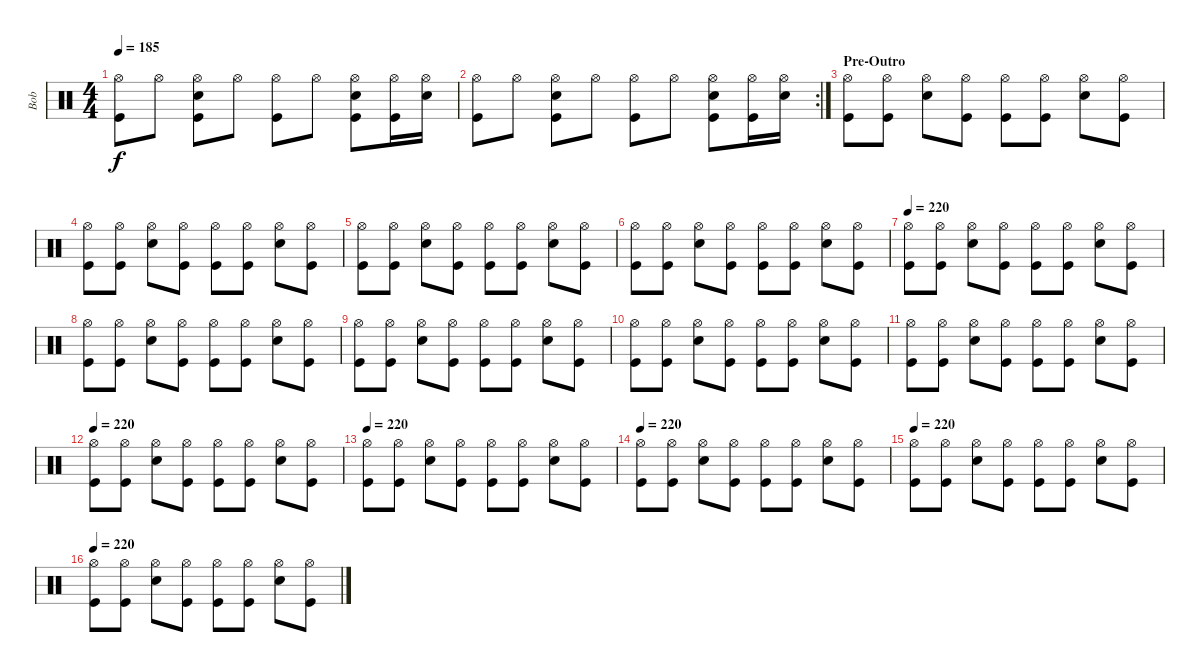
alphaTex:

\track ("Bob" "Bob") {instrument percussion}
\staff {score}
\articulation defaults
\ts (4 4)
\tempo 185
\clef neutral
\ks c
("Hi-Hat (open)" "Kick (hit)").8{dy f} "Hi-Hat (open)".8 ("Hi-Hat (open)" "Snare (hit) 2" "Kick (hit)").8 "Hi-Hat (open)".8 ("Hi-Hat (open)" "Kick (hit)").8 "Hi-Hat (open)".8 ("Hi-Hat (open)" "Snare (hit) 2" "Kick (hit)").8 ("Hi-Hat (open)" "Kick (hit)").16 ("Hi-Hat (open)" "Snare (hit) 2").16 |
\rc 2
("Hi-Hat (open)" "Kick (hit)").8 "Hi-Hat (open)".8 ("Hi-Hat (open)" "Snare (hit) 2" "Kick (hit)").8 "Hi-Hat (open)".8 ("Hi-Hat (open)" "Kick (hit)").8 "Hi-Hat (open)".8 ("Hi-Hat (open)" "Snare (hit) 2" "Kick (hit)").8 ("Hi-Hat (open)" "Kick (hit)").16 ("Hi-Hat (open)" "Snare (hit) 2").16 |
\section ("" "Pre-Outro")
("Hi-Hat (open)" "Kick (hit)").8 ("Hi-Hat (open)" "Kick (hit)").8 ("Hi-Hat (open)" "Snare (hit) 2").8 ("Hi-Hat (open)" "Kick (hit)").8 ("Hi-Hat (open)" "Kick (hit)").8 ("Hi-Hat (open)" "Kick (hit)").8 ("Hi-Hat (open)" "Snare (hit) 2").8 ("Hi-Hat (open)" "Kick (hit)").8 |
("Hi-Hat (open)" "Kick (hit)").8 ("Hi-Hat (open)" "Kick (hit)").8 ("Hi-Hat (open)" "Snare (hit) 2").8 ("Hi-Hat (open)" "Kick (hit)").8 ("Hi-Hat (open)" "Kick (hit)").8 ("Hi-Hat (open)" "Kick (hit)").8 ("Hi-Hat (open)" "Snare (hit) 2").8 ("Hi-Hat (open)" "Kick (hit)").8 |
("Hi-Hat (open)" "Kick (hit)").8 ("Hi-Hat (open)" "Kick (hit)").8 ("Hi-Hat (open)" "Snare (hit) 2").8 ("Hi-Hat (open)" "Kick (hit)").8 ("Hi-Hat (open)" "Kick (hit)").8 ("Hi-Hat (open)" "Kick (hit)").8 ("Hi-Hat (open)" "Snare (hit) 2").8 ("Hi-Hat (open)" "Kick (hit)").8 |
("Hi-Hat (open)" "Kick (hit)").8 ("Hi-Hat (open)" "Kick (hit)").8 ("Hi-Hat (open)" "Snare (hit) 2").8 ("Hi-Hat (open)" "Kick (hit)").8 ("Hi-Hat (open)" "Kick (hit)").8 ("Hi-Hat (open)" "Kick (hit)").8 ("Hi-Hat (open)" "Snare (hit) 2").8 ("Hi-Hat (open)" "Kick (hit)").8 |
\tempo 220
("Hi-Hat (open)" "Kick (hit)").8 ("Hi-Hat (open)" "Kick (hit)").8 ("Hi-Hat (open)" "Snare (hit) 2").8 ("Hi-Hat (open)" "Kick (hit)").8 ("Hi-Hat (open)" "Kick (hit)").8 ("Hi-Hat (open)" "Kick (hit)").8 ("Hi-Hat (open)" "Snare (hit) 2").8 ("Hi-Hat (open)" "Kick (hit)").8 |
("Hi-Hat (open)" "Kick (hit)").8 ("Hi-Hat (open)" "Kick (hit)").8 ("Hi-Hat (open)" "Snare (hit) 2").8 ("Hi-Hat (open)" "Kick (hit)").8 ("Hi-Hat (open)" "Kick (hit)").8 ("Hi-Hat (open)" "Kick (hit)").8 ("Hi-Hat (open)" "Snare (hit) 2").8 ("Hi-Hat (open)" "Kick (hit)").8 |
("Hi-Hat (open)" "Kick (hit)").8 ("Hi-Hat (open)" "Kick (hit)").8 ("Hi-Hat (open)" "Snare (hit) 2").8 ("Hi-Hat (open)" "Kick (hit)").8 ("Hi-Hat (open)" "Kick (hit)").8 ("Hi-Hat (open)" "Kick (hit)").8 ("Hi-Hat (open)" "Snare (hit) 2").8 ("Hi-Hat (open)" "Kick (hit)").8 |
("Hi-Hat (open)" "Kick (hit)").8 ("Hi-Hat (open)" "Kick (hit)").8 ("Hi-Hat (open)" "Snare (hit) 2").8 ("Hi-Hat (open)" "Kick (hit)").8 ("Hi-Hat (open)" "Kick (hit)").8 ("Hi-Hat (open)" "Kick (hit)").8 ("Hi-Hat (open)" "Snare (hit) 2").8 ("Hi-Hat (open)" "Kick (hit)").8 |
("Hi-Hat (open)" "Kick (hit)").8 ("Hi-Hat (open)" "Kick (hit)").8 ("Hi-Hat (open)" "Snare (hit) 2").8 ("Hi-Hat (open)" "Kick (hit)").8 ("Hi-Hat (open)" "Kick (hit)").8 ("Hi-Hat (open)" "Kick (hit)").8 ("Hi-Hat (open)" "Snare (hit) 2").8 ("Hi-Hat (open)" "Kick (hit)").8 |
\tempo 220
("Hi-Hat (open)" "Kick (hit)").8 ("Hi-Hat (open)" "Kick (hit)").8 ("Hi-Hat (open)" "Snare (hit) 2").8 ("Hi-Hat (open)" "Kick (hit)").8 ("Hi-Hat (open)" "Kick (hit)").8 ("Hi-Hat (open)" "Kick (hit)").8 ("Hi-Hat (open)" "Snare (hit) 2").8 ("Hi-Hat (open)" "Kick (hit)").8 |
\tempo 220
("Hi-Hat (open)" "Kick (hit)").8 ("Hi-Hat (open)" "Kick (hit)").8 ("Hi-Hat (open)" "Snare (hit) 2").8 ("Hi-Hat (open)" "Kick (hit)").8 ("Hi-Hat (open)" "Kick (hit)").8 ("Hi-Hat (open)" "Kick (hit)").8 ("Hi-Hat (open)" "Snare (hit) 2").8 ("Hi-Hat (open)" "Kick (hit)").8 |
\tempo 220
("Hi-Hat (open)" "Kick (hit)").8 ("Hi-Hat (open)" "Kick (hit)").8 ("Hi-Hat (open)" "Snare (hit) 2").8 ("Hi-Hat (open)" "Kick (hit)").8 ("Hi-Hat (open)" "Kick (hit)").8 ("Hi-Hat (open)" "Kick (hit)").8 ("Hi-Hat (open)" "Snare (hit) 2").8 ("Hi-Hat (open)" "Kick (hit)").8 |
\tempo 220
("Hi-Hat (open)" "Kick (hit)").8 ("Hi-Hat (open)" "Kick (hit)").8 ("Hi-Hat (open)" "Snare (hit) 2").8 ("Hi-Hat (open)" "Kick (hit)").8 ("Hi-Hat (open)" "Kick (hit)").8 ("Hi-Hat (open)" "Kick (hit)").8 ("Hi-Hat (open)" "Snare (hit) 2").8 ("Hi-Hat (open)" "Kick (hit)").8 |
\tempo 220
("Hi-Hat (open)" "Kick (hit)").8 ("Hi-Hat (open)" "Kick (hit)").8 ("Hi-Hat (open)" "Snare (hit) 2").8 ("Hi-Hat (open)" "Kick (hit)").8 ("Hi-Hat (open)" "Kick (hit)").8 ("Hi-Hat (open)" "Kick (hit)").8 ("Hi-Hat (open)" "Snare (hit) 2").8 ("Hi-Hat (open)" "Kick (hit)").8
